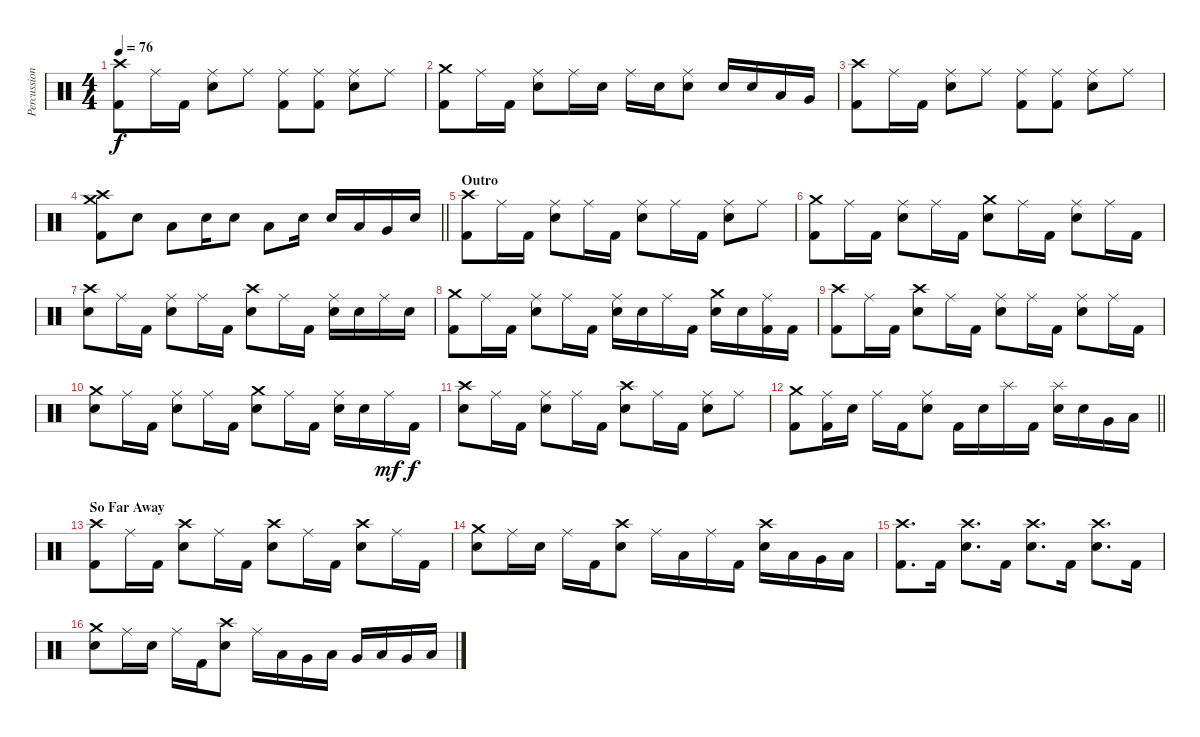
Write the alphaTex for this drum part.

\track ("Percussion" "Percussion") {instrument percussion}
\staff {score}
\articulation defaults
\ts (4 4)
\tempo 76
\clef neutral
\ks c
("Crash high (hit)" "Kick (hit) 2").8{dy f} "Ride (middle)".16 "Kick (hit) 2".16 ("Ride (middle)" "Electric Snare (hit)").8 "Ride (middle)".8 ("Ride (middle)" "Kick (hit) 2").8 ("Ride (middle)" "Kick (hit) 2").8 ("Ride (middle)" "Electric Snare (hit)").8 "Ride (middle)".8 |
("Crash medium (hit)" "Kick (hit) 2").8 "Ride (middle)".16 "Kick (hit) 2".16 ("Ride (middle)" "Electric Snare (hit)").8 "Ride (middle)".16 "Electric Snare (hit)".16 "Ride (middle)".16 "Electric Snare (hit)".16 ("Ride (middle)" "Electric Snare (hit)").8 "Electric Snare (hit)".16 "Electric Snare (hit)".16 "Low Tom (hit)".16 "Very Low Tom (hit)".16 |
("Crash high (hit)" "Kick (hit) 2").8 "Ride (middle)".16 "Kick (hit) 2".16 ("Ride (middle)" "Electric Snare (hit)").8 "Ride (middle)".8 ("Ride (middle)" "Kick (hit) 2").8 ("Ride (middle)" "Kick (hit) 2").8 ("Ride (middle)" "Electric Snare (hit)").8 "Ride (middle)".8 |
\barLineRight lightlight
("Crash medium (hit)" "Crash high (hit)" "Kick (hit) 2").8 "Electric Snare (hit)".8 "Low Tom (hit)".8 "Electric Snare (hit)".16 "Electric Snare (hit)".8 "Low Tom (hit)".8 "Electric Snare (hit)".16 "Electric Snare (hit)".16 "Low Tom (hit)".16 "Very Low Tom (hit)".16 "Electric Snare (hit)".16 |
\section ("" "Outro")
("Crash high (hit)" "Kick (hit) 2").8 "Ride (middle)".16 "Kick (hit) 2".16 ("Ride (middle)" "Electric Snare (hit)").8 "Ride (middle)".16 "Kick (hit) 2".16 ("Ride (middle)" "Electric Snare (hit)").8 "Ride (middle)".16 "Kick (hit) 2".16 ("Ride (middle)" "Electric Snare (hit)").8 "Ride (middle)".8 |
("Crash medium (hit)" "Kick (hit) 2").8 "Ride (middle)".16 "Kick (hit) 2".16 ("Ride (middle)" "Electric Snare (hit)").8 "Ride (middle)".16 "Kick (hit) 2".16 ("Crash medium (hit)" "Electric Snare (hit)").8 "Ride (middle)".16 "Kick (hit) 2".16 ("Ride (middle)" "Electric Snare (hit)").8 "Ride (middle)".16 "Kick (hit) 2".16 |
("Crash high (hit)" "Electric Snare (hit)").8 "Ride (middle)".16 "Kick (hit) 2".16 ("Ride (middle)" "Electric Snare (hit)").8 "Ride (middle)".16 "Kick (hit) 2".16 ("Crash high (hit)" "Electric Snare (hit)").8 "Ride (middle)".16 "Kick (hit) 2".16 ("Ride (middle)" "Electric Snare (hit)").16 "Electric Snare (hit)".16 "Ride (middle)".16 "Electric Snare (hit)".16 |
("Crash medium (hit)" "Kick (hit) 2").8 "Ride (middle)".16 "Kick (hit) 2".16 ("Ride (middle)" "Electric Snare (hit)").8 "Ride (middle)".16 "Kick (hit) 2".16 ("Ride (middle)" "Electric Snare (hit)").16 "Electric Snare (hit)".16 "Ride (middle)".16 "Kick (hit) 2".16 ("Crash medium (hit)" "Electric Snare (hit)").16 "Electric Snare (hit)".16 ("Ride (middle)" "Kick (hit) 2").16 "Kick (hit) 2".16 |
("Crash high (hit)" "Kick (hit) 2").8 "Ride (middle)".16 "Kick (hit) 2".16 ("Crash high (hit)" "Electric Snare (hit)").8 "Ride (middle)".16 "Kick (hit) 2".16 ("Ride (middle)" "Electric Snare (hit)").8 "Ride (middle)".16 "Kick (hit) 2".16 ("Ride (middle)" "Electric Snare (hit)").8 "Ride (middle)".16 "Kick (hit) 2".16 |
("Crash medium (hit)" "Electric Snare (hit)").8 "Ride (middle)".16 "Kick (hit) 2".16 ("Ride (middle)" "Electric Snare (hit)").8 "Ride (middle)".16 "Kick (hit) 2".16 ("Crash medium (hit)" "Electric Snare (hit)").8 "Ride (middle)".16 "Kick (hit) 2".16 ("Ride (middle)" "Electric Snare (hit)").16 "Electric Snare (hit)".16 "Ride (middle)".16{dy mf} "Kick (hit) 2".16{dy f} |
("Crash high (hit)" "Electric Snare (hit)").8 "Ride (middle)".16 "Kick (hit) 2".16 ("Ride (middle)" "Electric Snare (hit)").8 "Ride (middle)".16 "Kick (hit) 2".16 ("Crash high (hit)" "Electric Snare (hit)").8 "Ride (middle)".16 "Kick (hit) 2".16 ("Ride (middle)" "Electric Snare (hit)").8 "Ride (middle)".8 |
\barLineRight lightlight
("Crash medium (hit)" "Kick (hit) 2").8 ("Ride (middle)" "Kick (hit) 2").16 "Electric Snare (hit)".16 "Ride (middle)".16 "Kick (hit) 2".16 ("Ride (middle)" "Electric Snare (hit)").8 "Kick (hit) 2".16 "Electric Snare (hit)".16 "Splash (hit)".16 "Kick (hit) 2".16 ("Splash (hit)" "Electric Snare (hit)").16 "Electric Snare (hit)".16 "Very Low Tom (hit)".16 "Low Floor Tom (hit)".16 |
\section ("" "So Far Away")
("Crash high (hit)" "Kick (hit) 2").8 "Ride (middle)".16 "Kick (hit) 2".16 ("Crash high (hit)" "Electric Snare (hit)").8 "Ride (middle)".16 "Kick (hit) 2".16 ("Crash high (hit)" "Electric Snare (hit)").8 "Ride (middle)".16 "Kick (hit) 2".16 ("Crash high (hit)" "Electric Snare (hit)").8 "Ride (middle)".16 "Kick (hit) 2".16 |
("Crash medium (hit)" "Electric Snare (hit)").8 "Ride (middle)".16 "Electric Snare (hit)".16 "Ride (middle)".16 "Kick (hit) 2".16 ("Crash high (hit)" "Electric Snare (hit)").8 "Ride (middle)".16 "Low Tom (hit)".16 "Ride (middle)".16 "Kick (hit) 2".16 ("Crash high (hit)" "Electric Snare (hit)").16 "Low Tom (hit)".16 "Very Low Tom (hit)".16 "Low Floor Tom (hit)".16 |
("Crash high (hit)" "Kick (hit) 2").8{d} "Kick (hit) 2".16 ("Crash high (hit)" "Electric Snare (hit)").8{d} "Kick (hit) 2".16 ("Crash high (hit)" "Electric Snare (hit)").8{d} "Kick (hit) 2".16 ("Crash high (hit)" "Electric Snare (hit)").8{d} "Kick (hit) 2".16 |
("Crash medium (hit)" "Electric Snare (hit)").8 "Ride (middle)".16 "Electric Snare (hit)".16 "Ride (middle)".16 "Kick (hit) 2".16 ("Crash high (hit)" "Electric Snare (hit)").8 "Ride (middle)".16 "Low Tom (hit)".16 "Very Low Tom (hit)".16 "Low Floor Tom (hit)".16 "Very Low Tom (hit)".16 "Low Tom (hit)".16 "Very Low Tom (hit)".16 "Low Floor Tom (hit)".16
